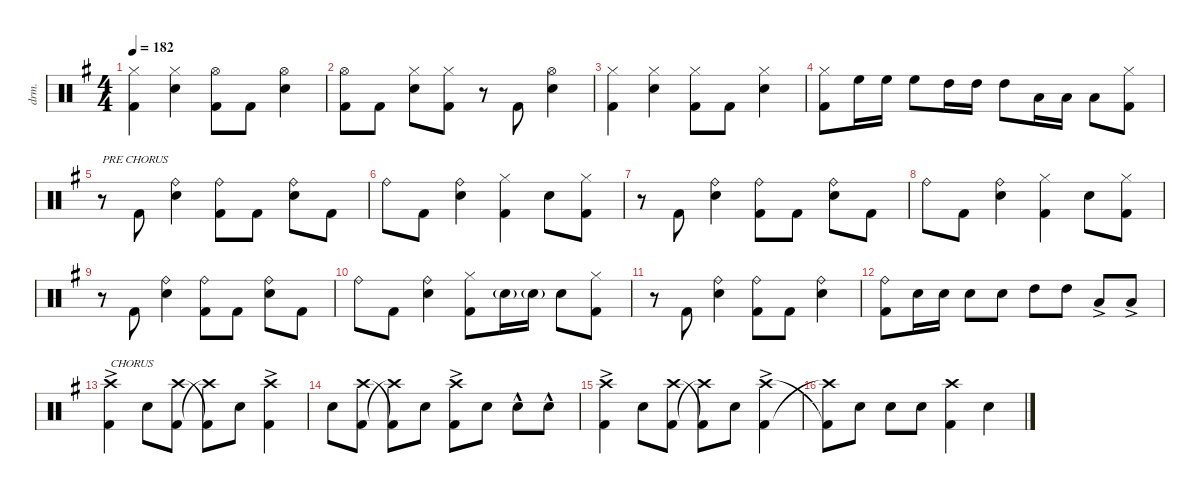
\defaultSystemsLayout 4
\hideDynamics
\bracketExtendMode nobrackets
\otherSystemsTrackNameOrientation horizontal
\track ("Drum" "drm.") {defaultSystemsLayout 4 instrument percussion}
\staff {score}
\articulation defaults
\ts (4 4)
\tempo 182
\clef neutral
\ks g
("Kick (hit) 2"{acc forcenatural} "Hi-Hat (closed)"{acc forcenatural}).4{dy f beam Down} ("Snare (hit) 2"{acc forcenatural} "Hi-Hat (closed)"{acc forcenatural}).4{beam Down} ("Kick (hit) 2"{acc forcenatural} "Hi-Hat (open)"{acc forcenatural}).8{beam Down} "Kick (hit) 2"{acc forcenatural}.8{beam Down} ("Snare (hit) 2"{acc forcenatural} "Hi-Hat (open)"{acc forcenatural}).4{beam Down} |
("Kick (hit) 2"{acc forcenatural} "Hi-Hat (open)"{acc forcenatural}).8{beam Down} "Kick (hit) 2"{acc forcenatural}.8{beam Down} ("Snare (hit) 2"{acc forcenatural} "Hi-Hat (closed)"{acc forcenatural}).8{beam Down} ("Kick (hit) 2"{acc forcenatural} "Hi-Hat (closed)"{acc forcenatural}).8{beam Down} r.8{beam Down} "Kick (hit) 2"{acc forcenatural}.8{beam Up} ("Snare (hit) 2"{acc forcenatural} "Hi-Hat (open)"{acc forcenatural}).4{beam Down} |
("Kick (hit) 2"{acc forcenatural} "Hi-Hat (closed)"{acc forcenatural}).4{beam Down} ("Snare (hit) 2"{acc forcenatural} "Hi-Hat (closed)"{acc forcenatural}).4{beam Down} ("Kick (hit) 2"{acc forcenatural} "Hi-Hat (closed)"{acc forcenatural}).8{beam Down} "Kick (hit) 2"{acc forcenatural}.8{beam Down} ("Snare (hit) 2"{acc forcenatural} "Hi-Hat (closed)"{acc forcenatural}).4{beam Down} |
("Kick (hit) 2"{acc forcenatural} "Hi-Hat (closed)"{acc forcenatural}).8{beam Down} "High Floor Tom (hit)"{acc forcenatural}.16{beam Down} "High Floor Tom (hit)"{acc forcenatural}.16{beam Down} "High Floor Tom (hit)"{acc forcenatural}.8{beam Down} "High Tom (hit)"{acc forcenatural}.16{beam Down} "High Tom (hit)"{acc forcenatural}.16{beam Down} "High Tom (hit)"{acc forcenatural}.8{beam Down} "Low Tom (hit)"{acc forcenatural}.16{beam Down} "Low Tom (hit)"{acc forcenatural}.16{beam Down} "Low Tom (hit)"{acc forcenatural}.8{beam Down} ("Kick (hit) 2"{acc forcenatural} "Hi-Hat (closed)"{acc forcenatural}).8{beam Down} |
r.8{txt "PRE CHORUS" beam Down} "Kick (hit) 2"{acc forcenatural}.8{dy mf beam Up} ("Snare (hit) 2"{acc forcenatural} "Ride (bell)"{acc forcenatural}).4{beam Down} ("Kick (hit) 2"{acc forcenatural} "Ride (bell)"{acc forcenatural}).8{beam Down} "Kick (hit) 2"{acc forcenatural}.8{beam Down} ("Snare (hit) 2"{acc forcenatural} "Ride (bell)"{acc forcenatural}).8{beam Down} "Kick (hit) 2"{acc forcenatural}.8{beam Down} |
"Ride (bell)"{acc forcenatural}.8{beam Down} "Kick (hit) 2"{acc forcenatural}.8{beam Down} ("Snare (hit) 2"{acc forcenatural} "Ride (bell)"{acc forcenatural}).4{beam Down} ("Kick (hit) 2"{acc forcenatural} "Hi-Hat (closed)"{acc forcenatural}).4{beam Down} "Snare (hit) 2"{acc forcenatural}.8{beam Down} ("Kick (hit) 2"{acc forcenatural} "Hi-Hat (closed)"{acc forcenatural}).8{beam Down} |
r.8{beam Down} "Kick (hit) 2"{acc forcenatural}.8{beam Up} ("Snare (hit) 2"{acc forcenatural} "Ride (bell)"{acc forcenatural}).4{beam Down} ("Kick (hit) 2"{acc forcenatural} "Ride (bell)"{acc forcenatural}).8{beam Down} "Kick (hit) 2"{acc forcenatural}.8{beam Down} ("Snare (hit) 2"{acc forcenatural} "Ride (bell)"{acc forcenatural}).8{beam Down} "Kick (hit) 2"{acc forcenatural}.8{beam Down} |
"Ride (bell)"{acc forcenatural}.8{beam Down} "Kick (hit) 2"{acc forcenatural}.8{beam Down} ("Snare (hit) 2"{acc forcenatural} "Ride (bell)"{acc forcenatural}).4{beam Down} ("Kick (hit) 2"{acc forcenatural} "Hi-Hat (closed)"{acc forcenatural}).4{beam Down} "Snare (hit) 2"{acc forcenatural}.8{beam Down} ("Kick (hit) 2"{acc forcenatural} "Hi-Hat (closed)"{acc forcenatural}).8{beam Down} |
r.8{beam Down} "Kick (hit) 2"{acc forcenatural}.8{beam Up} ("Snare (hit) 2"{acc forcenatural} "Ride (bell)"{acc forcenatural}).4{beam Down} ("Kick (hit) 2"{acc forcenatural} "Ride (bell)"{acc forcenatural}).8{beam Down} "Kick (hit) 2"{acc forcenatural}.8{beam Down} ("Snare (hit) 2"{acc forcenatural} "Ride (bell)"{acc forcenatural}).8{beam Down} "Kick (hit) 2"{acc forcenatural}.8{beam Down} |
"Ride (bell)"{acc forcenatural}.8{beam Down} "Kick (hit) 2"{acc forcenatural}.8{beam Down} ("Snare (hit) 2"{acc forcenatural} "Ride (bell)"{acc forcenatural}).4{beam Down} ("Kick (hit) 2"{acc forcenatural} "Hi-Hat (closed)"{acc forcenatural}).8{beam Down} "Snare (hit) 2"{g acc forcenatural}.16{beam Down} "Snare (hit) 2"{g acc forcenatural}.16{beam Down} "Snare (hit) 2"{acc forcenatural}.8{beam Down} ("Kick (hit) 2"{acc forcenatural} "Hi-Hat (closed)"{acc forcenatural}).8{beam Down} |
r.8{beam Down} "Kick (hit) 2"{acc forcenatural}.8{beam Up} ("Snare (hit) 2"{acc forcenatural} "Ride (bell)"{acc forcenatural}).4{beam Down} ("Kick (hit) 2"{acc forcenatural} "Ride (bell)"{acc forcenatural}).8{beam Down} "Kick (hit) 2"{acc forcenatural}.8{beam Down} ("Snare (hit) 2"{acc forcenatural} "Ride (bell)"{acc forcenatural}).4{beam Down} |
("Kick (hit) 2"{acc forcenatural} "Ride (bell)"{acc forcenatural}).8{beam Down} "Snare (hit) 2"{acc forcenatural}.16{beam Down} "Snare (hit) 2"{acc forcenatural}.16{beam Down} "Snare (hit) 2"{acc forcenatural}.8{beam Down} "Snare (hit) 2"{acc forcenatural}.8{beam Down} "High Tom (hit)"{acc forcenatural}.8{beam Down} "High Tom (hit)"{acc forcenatural}.8{beam Down} "Low Tom (hit)"{ac acc forcenatural}.8{beam Up} "Low Tom (hit)"{ac acc forcenatural}.8{beam Up} |
("Kick (hit) 2"{acc forcenatural} "Crash high (hit)"{ac acc forcenatural}).4{txt "CHORUS" dy f beam Down} "Snare (hit) 2"{acc forcenatural}.8{beam Down} ("Kick (hit) 2"{acc forcenatural} "Crash high (hit)"{acc forcenatural}).8{beam Down} ("Crash high (hit)"{t acc forcenatural} "Kick (hit) 2"{t acc forcenatural}).8{beam Down} "Snare (hit) 2"{acc forcenatural}.8{beam Down} ("Kick (hit) 2"{ac acc forcenatural} "Crash high (hit)"{acc forcenatural}).4{beam Down} |
"Snare (hit) 2"{acc forcenatural}.8{beam Down} ("Kick (hit) 2"{acc forcenatural} "Crash high (hit)"{acc forcenatural}).8{beam Down} ("Crash high (hit)"{t acc forcenatural} "Kick (hit) 2"{t acc forcenatural}).8{beam Down} "Snare (hit) 2"{acc forcenatural}.8{beam Down} ("Kick (hit) 2"{ac acc forcenatural} "Crash high (hit)"{acc forcenatural}).8{beam Down} "Snare (hit) 2"{acc forcenatural}.8{beam Down} "Snare (hit) 2"{hac acc forcenatural}.8{beam Down} "Snare (hit) 2"{hac acc forcenatural}.8{beam Down} |
("Kick (hit) 2"{acc forcenatural} "Crash high (hit)"{ac acc forcenatural}).4{beam Down} "Snare (hit) 2"{acc forcenatural}.8{beam Down} ("Kick (hit) 2"{acc forcenatural} "Crash high (hit)"{acc forcenatural}).8{beam Down} ("Crash high (hit)"{t acc forcenatural} "Kick (hit) 2"{t acc forcenatural}).8{beam Down} "Snare (hit) 2"{acc forcenatural}.8{beam Down} ("Kick (hit) 2"{ac acc forcenatural} "Crash high (hit)"{acc forcenatural}).4{beam Down} |
("Crash high (hit)"{t acc forcenatural} "Kick (hit) 2"{t acc forcenatural}).8{beam Down} "Snare (hit) 2"{acc forcenatural}.8{beam Down} "Snare (hit) 2"{acc forcenatural}.8{beam Down} "Snare (hit) 2"{acc forcenatural}.8{beam Down} ("Kick (hit) 2"{acc forcenatural} "Crash high (hit)"{acc forcenatural}).4{beam Down} "Snare (hit) 2"{acc forcenatural}.4{beam Down}
